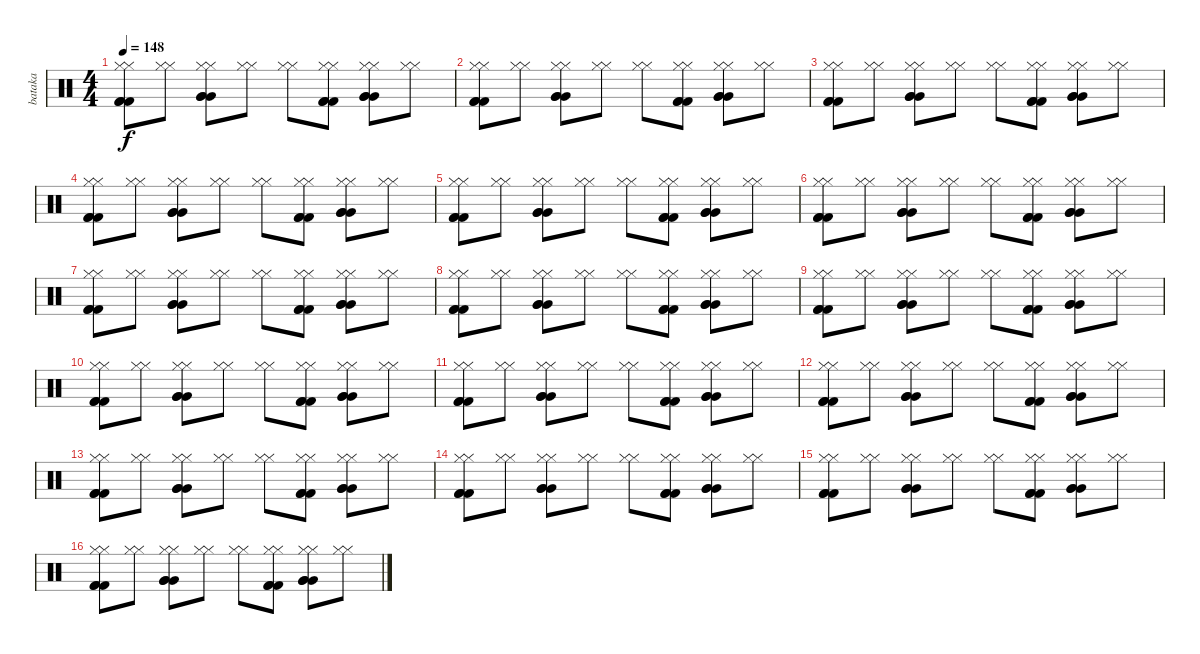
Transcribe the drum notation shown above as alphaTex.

\track ("bataka" "bataka") {instrument percussion}
\staff {score}
\articulation defaults
\ts (4 4)
\tempo 148
\clef neutral
\ks c
("Hi-Hat (closed)" "Hi-Hat (closed)" "Kick (hit) 2" "Kick (hit) 2" "Kick (hit) 2").8{dy f} ("Hi-Hat (closed)" "Hi-Hat (closed)").8 ("Hi-Hat (closed)" "Hi-Hat (closed)" "Very Low Tom (hit)" "Very Low Tom (hit)" "Very Low Tom (hit)").8 ("Hi-Hat (closed)" "Hi-Hat (closed)").8 ("Hi-Hat (closed)" "Hi-Hat (closed)").8 ("Hi-Hat (closed)" "Hi-Hat (closed)" "Kick (hit) 2" "Kick (hit) 2" "Kick (hit) 2").8 ("Hi-Hat (closed)" "Hi-Hat (closed)" "Very Low Tom (hit)" "Very Low Tom (hit)" "Very Low Tom (hit)").8 ("Hi-Hat (closed)" "Hi-Hat (closed)").8 |
("Hi-Hat (closed)" "Hi-Hat (closed)" "Kick (hit) 2" "Kick (hit) 2" "Kick (hit) 2").8 ("Hi-Hat (closed)" "Hi-Hat (closed)").8 ("Hi-Hat (closed)" "Hi-Hat (closed)" "Very Low Tom (hit)" "Very Low Tom (hit)" "Very Low Tom (hit)").8 ("Hi-Hat (closed)" "Hi-Hat (closed)").8 ("Hi-Hat (closed)" "Hi-Hat (closed)").8 ("Hi-Hat (closed)" "Hi-Hat (closed)" "Kick (hit) 2" "Kick (hit) 2" "Kick (hit) 2").8 ("Hi-Hat (closed)" "Hi-Hat (closed)" "Very Low Tom (hit)" "Very Low Tom (hit)" "Very Low Tom (hit)").8 ("Hi-Hat (closed)" "Hi-Hat (closed)").8 |
("Hi-Hat (closed)" "Hi-Hat (closed)" "Kick (hit) 2" "Kick (hit) 2" "Kick (hit) 2").8 ("Hi-Hat (closed)" "Hi-Hat (closed)").8 ("Hi-Hat (closed)" "Hi-Hat (closed)" "Very Low Tom (hit)" "Very Low Tom (hit)" "Very Low Tom (hit)").8 ("Hi-Hat (closed)" "Hi-Hat (closed)").8 ("Hi-Hat (closed)" "Hi-Hat (closed)").8 ("Hi-Hat (closed)" "Hi-Hat (closed)" "Kick (hit) 2" "Kick (hit) 2" "Kick (hit) 2").8 ("Hi-Hat (closed)" "Hi-Hat (closed)" "Very Low Tom (hit)" "Very Low Tom (hit)" "Very Low Tom (hit)").8 ("Hi-Hat (closed)" "Hi-Hat (closed)").8 |
("Hi-Hat (closed)" "Hi-Hat (closed)" "Kick (hit) 2" "Kick (hit) 2" "Kick (hit) 2").8 ("Hi-Hat (closed)" "Hi-Hat (closed)").8 ("Hi-Hat (closed)" "Hi-Hat (closed)" "Very Low Tom (hit)" "Very Low Tom (hit)" "Very Low Tom (hit)").8 ("Hi-Hat (closed)" "Hi-Hat (closed)").8 ("Hi-Hat (closed)" "Hi-Hat (closed)").8 ("Hi-Hat (closed)" "Hi-Hat (closed)" "Kick (hit) 2" "Kick (hit) 2" "Kick (hit) 2").8 ("Hi-Hat (closed)" "Hi-Hat (closed)" "Very Low Tom (hit)" "Very Low Tom (hit)" "Very Low Tom (hit)").8 ("Hi-Hat (closed)" "Hi-Hat (closed)").8 |
("Hi-Hat (closed)" "Hi-Hat (closed)" "Kick (hit) 2" "Kick (hit) 2" "Kick (hit) 2").8 ("Hi-Hat (closed)" "Hi-Hat (closed)").8 ("Hi-Hat (closed)" "Hi-Hat (closed)" "Very Low Tom (hit)" "Very Low Tom (hit)" "Very Low Tom (hit)").8 ("Hi-Hat (closed)" "Hi-Hat (closed)").8 ("Hi-Hat (closed)" "Hi-Hat (closed)").8 ("Hi-Hat (closed)" "Hi-Hat (closed)" "Kick (hit) 2" "Kick (hit) 2" "Kick (hit) 2").8 ("Hi-Hat (closed)" "Hi-Hat (closed)" "Very Low Tom (hit)" "Very Low Tom (hit)" "Very Low Tom (hit)").8 ("Hi-Hat (closed)" "Hi-Hat (closed)").8 |
("Hi-Hat (closed)" "Hi-Hat (closed)" "Kick (hit) 2" "Kick (hit) 2" "Kick (hit) 2").8 ("Hi-Hat (closed)" "Hi-Hat (closed)").8 ("Hi-Hat (closed)" "Hi-Hat (closed)" "Very Low Tom (hit)" "Very Low Tom (hit)" "Very Low Tom (hit)").8 ("Hi-Hat (closed)" "Hi-Hat (closed)").8 ("Hi-Hat (closed)" "Hi-Hat (closed)").8 ("Hi-Hat (closed)" "Hi-Hat (closed)" "Kick (hit) 2" "Kick (hit) 2" "Kick (hit) 2").8 ("Hi-Hat (closed)" "Hi-Hat (closed)" "Very Low Tom (hit)" "Very Low Tom (hit)" "Very Low Tom (hit)").8 ("Hi-Hat (closed)" "Hi-Hat (closed)").8 |
("Hi-Hat (closed)" "Hi-Hat (closed)" "Kick (hit) 2" "Kick (hit) 2" "Kick (hit) 2").8 ("Hi-Hat (closed)" "Hi-Hat (closed)").8 ("Hi-Hat (closed)" "Hi-Hat (closed)" "Very Low Tom (hit)" "Very Low Tom (hit)" "Very Low Tom (hit)").8 ("Hi-Hat (closed)" "Hi-Hat (closed)").8 ("Hi-Hat (closed)" "Hi-Hat (closed)").8 ("Hi-Hat (closed)" "Hi-Hat (closed)" "Kick (hit) 2" "Kick (hit) 2" "Kick (hit) 2").8 ("Hi-Hat (closed)" "Hi-Hat (closed)" "Very Low Tom (hit)" "Very Low Tom (hit)" "Very Low Tom (hit)").8 ("Hi-Hat (closed)" "Hi-Hat (closed)").8 |
("Hi-Hat (closed)" "Hi-Hat (closed)" "Kick (hit) 2" "Kick (hit) 2" "Kick (hit) 2").8 ("Hi-Hat (closed)" "Hi-Hat (closed)").8 ("Hi-Hat (closed)" "Hi-Hat (closed)" "Very Low Tom (hit)" "Very Low Tom (hit)" "Very Low Tom (hit)").8 ("Hi-Hat (closed)" "Hi-Hat (closed)").8 ("Hi-Hat (closed)" "Hi-Hat (closed)").8 ("Hi-Hat (closed)" "Hi-Hat (closed)" "Kick (hit) 2" "Kick (hit) 2" "Kick (hit) 2").8 ("Hi-Hat (closed)" "Hi-Hat (closed)" "Very Low Tom (hit)" "Very Low Tom (hit)" "Very Low Tom (hit)").8 ("Hi-Hat (closed)" "Hi-Hat (closed)").8 |
("Hi-Hat (closed)" "Hi-Hat (closed)" "Kick (hit) 2" "Kick (hit) 2" "Kick (hit) 2").8 ("Hi-Hat (closed)" "Hi-Hat (closed)").8 ("Hi-Hat (closed)" "Hi-Hat (closed)" "Very Low Tom (hit)" "Very Low Tom (hit)" "Very Low Tom (hit)").8 ("Hi-Hat (closed)" "Hi-Hat (closed)").8 ("Hi-Hat (closed)" "Hi-Hat (closed)").8 ("Hi-Hat (closed)" "Hi-Hat (closed)" "Kick (hit) 2" "Kick (hit) 2" "Kick (hit) 2").8 ("Hi-Hat (closed)" "Hi-Hat (closed)" "Very Low Tom (hit)" "Very Low Tom (hit)" "Very Low Tom (hit)").8 ("Hi-Hat (closed)" "Hi-Hat (closed)").8 |
("Hi-Hat (closed)" "Hi-Hat (closed)" "Kick (hit) 2" "Kick (hit) 2" "Kick (hit) 2").8 ("Hi-Hat (closed)" "Hi-Hat (closed)").8 ("Hi-Hat (closed)" "Hi-Hat (closed)" "Very Low Tom (hit)" "Very Low Tom (hit)" "Very Low Tom (hit)").8 ("Hi-Hat (closed)" "Hi-Hat (closed)").8 ("Hi-Hat (closed)" "Hi-Hat (closed)").8 ("Hi-Hat (closed)" "Hi-Hat (closed)" "Kick (hit) 2" "Kick (hit) 2" "Kick (hit) 2").8 ("Hi-Hat (closed)" "Hi-Hat (closed)" "Very Low Tom (hit)" "Very Low Tom (hit)" "Very Low Tom (hit)").8 ("Hi-Hat (closed)" "Hi-Hat (closed)").8 |
("Hi-Hat (closed)" "Hi-Hat (closed)" "Kick (hit) 2" "Kick (hit) 2" "Kick (hit) 2").8 ("Hi-Hat (closed)" "Hi-Hat (closed)").8 ("Hi-Hat (closed)" "Hi-Hat (closed)" "Very Low Tom (hit)" "Very Low Tom (hit)" "Very Low Tom (hit)").8 ("Hi-Hat (closed)" "Hi-Hat (closed)").8 ("Hi-Hat (closed)" "Hi-Hat (closed)").8 ("Hi-Hat (closed)" "Hi-Hat (closed)" "Kick (hit) 2" "Kick (hit) 2" "Kick (hit) 2").8 ("Hi-Hat (closed)" "Hi-Hat (closed)" "Very Low Tom (hit)" "Very Low Tom (hit)" "Very Low Tom (hit)").8 ("Hi-Hat (closed)" "Hi-Hat (closed)").8 |
("Hi-Hat (closed)" "Hi-Hat (closed)" "Kick (hit) 2" "Kick (hit) 2" "Kick (hit) 2").8 ("Hi-Hat (closed)" "Hi-Hat (closed)").8 ("Hi-Hat (closed)" "Hi-Hat (closed)" "Very Low Tom (hit)" "Very Low Tom (hit)" "Very Low Tom (hit)").8 ("Hi-Hat (closed)" "Hi-Hat (closed)").8 ("Hi-Hat (closed)" "Hi-Hat (closed)").8 ("Hi-Hat (closed)" "Hi-Hat (closed)" "Kick (hit) 2" "Kick (hit) 2" "Kick (hit) 2").8 ("Hi-Hat (closed)" "Hi-Hat (closed)" "Very Low Tom (hit)" "Very Low Tom (hit)" "Very Low Tom (hit)").8 ("Hi-Hat (closed)" "Hi-Hat (closed)").8 |
("Hi-Hat (closed)" "Hi-Hat (closed)" "Kick (hit) 2" "Kick (hit) 2" "Kick (hit) 2").8 ("Hi-Hat (closed)" "Hi-Hat (closed)").8 ("Hi-Hat (closed)" "Hi-Hat (closed)" "Very Low Tom (hit)" "Very Low Tom (hit)" "Very Low Tom (hit)").8 ("Hi-Hat (closed)" "Hi-Hat (closed)").8 ("Hi-Hat (closed)" "Hi-Hat (closed)").8 ("Hi-Hat (closed)" "Hi-Hat (closed)" "Kick (hit) 2" "Kick (hit) 2" "Kick (hit) 2").8 ("Hi-Hat (closed)" "Hi-Hat (closed)" "Very Low Tom (hit)" "Very Low Tom (hit)" "Very Low Tom (hit)").8 ("Hi-Hat (closed)" "Hi-Hat (closed)").8 |
("Hi-Hat (closed)" "Hi-Hat (closed)" "Kick (hit) 2" "Kick (hit) 2" "Kick (hit) 2").8 ("Hi-Hat (closed)" "Hi-Hat (closed)").8 ("Hi-Hat (closed)" "Hi-Hat (closed)" "Very Low Tom (hit)" "Very Low Tom (hit)" "Very Low Tom (hit)").8 ("Hi-Hat (closed)" "Hi-Hat (closed)").8 ("Hi-Hat (closed)" "Hi-Hat (closed)").8 ("Hi-Hat (closed)" "Hi-Hat (closed)" "Kick (hit) 2" "Kick (hit) 2" "Kick (hit) 2").8 ("Hi-Hat (closed)" "Hi-Hat (closed)" "Very Low Tom (hit)" "Very Low Tom (hit)" "Very Low Tom (hit)").8 ("Hi-Hat (closed)" "Hi-Hat (closed)").8 |
("Hi-Hat (closed)" "Hi-Hat (closed)" "Kick (hit) 2" "Kick (hit) 2" "Kick (hit) 2").8 ("Hi-Hat (closed)" "Hi-Hat (closed)").8 ("Hi-Hat (closed)" "Hi-Hat (closed)" "Very Low Tom (hit)" "Very Low Tom (hit)" "Very Low Tom (hit)").8 ("Hi-Hat (closed)" "Hi-Hat (closed)").8 ("Hi-Hat (closed)" "Hi-Hat (closed)").8 ("Hi-Hat (closed)" "Hi-Hat (closed)" "Kick (hit) 2" "Kick (hit) 2" "Kick (hit) 2").8 ("Hi-Hat (closed)" "Hi-Hat (closed)" "Very Low Tom (hit)" "Very Low Tom (hit)" "Very Low Tom (hit)").8 ("Hi-Hat (closed)" "Hi-Hat (closed)").8 |
("Hi-Hat (closed)" "Hi-Hat (closed)" "Kick (hit) 2" "Kick (hit) 2" "Kick (hit) 2").8 ("Hi-Hat (closed)" "Hi-Hat (closed)").8 ("Hi-Hat (closed)" "Hi-Hat (closed)" "Very Low Tom (hit)" "Very Low Tom (hit)" "Very Low Tom (hit)").8 ("Hi-Hat (closed)" "Hi-Hat (closed)").8 ("Hi-Hat (closed)" "Hi-Hat (closed)").8 ("Hi-Hat (closed)" "Hi-Hat (closed)" "Kick (hit) 2" "Kick (hit) 2" "Kick (hit) 2").8 ("Hi-Hat (closed)" "Hi-Hat (closed)" "Very Low Tom (hit)" "Very Low Tom (hit)" "Very Low Tom (hit)").8 ("Hi-Hat (closed)" "Hi-Hat (closed)").8
